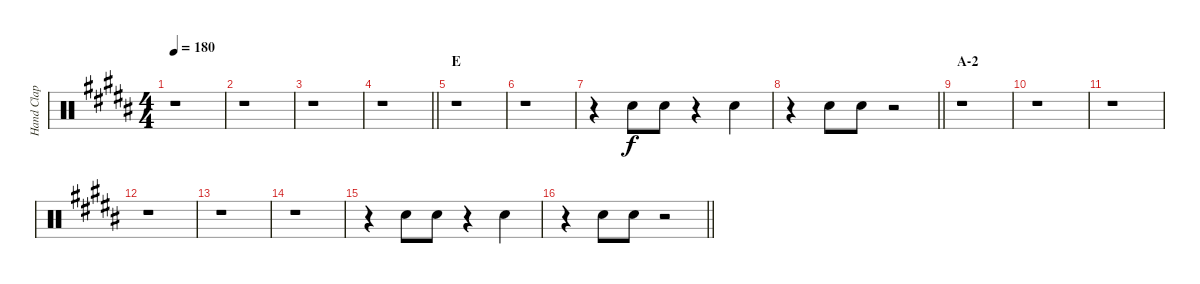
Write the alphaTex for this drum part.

\track ("Hand Clap" "Hand Clap") {instrument percussion}
\staff {score}
\articulation defaults
\ts (4 4)
\tempo 180
\clef neutral
\ks b
r.1{dy f} |
r.1 |
r.1 |
\barLineRight lightlight
r.1 |
\section ("" "E")
r.1 |
r.1 |
r.4 "Hand Clap (hit)".8 "Hand Clap (hit)".8 r.4 "Hand Clap (hit)".4 |
\barLineRight lightlight
r.4 "Hand Clap (hit)".8 "Hand Clap (hit)".8 r.2 |
\section ("" "A-2")
r.1 |
r.1 |
r.1 |
r.1 |
r.1 |
r.1 |
r.4 "Hand Clap (hit)".8 "Hand Clap (hit)".8 r.4 "Hand Clap (hit)".4 |
\barLineRight lightlight
r.4 "Hand Clap (hit)".8 "Hand Clap (hit)".8 r.2
